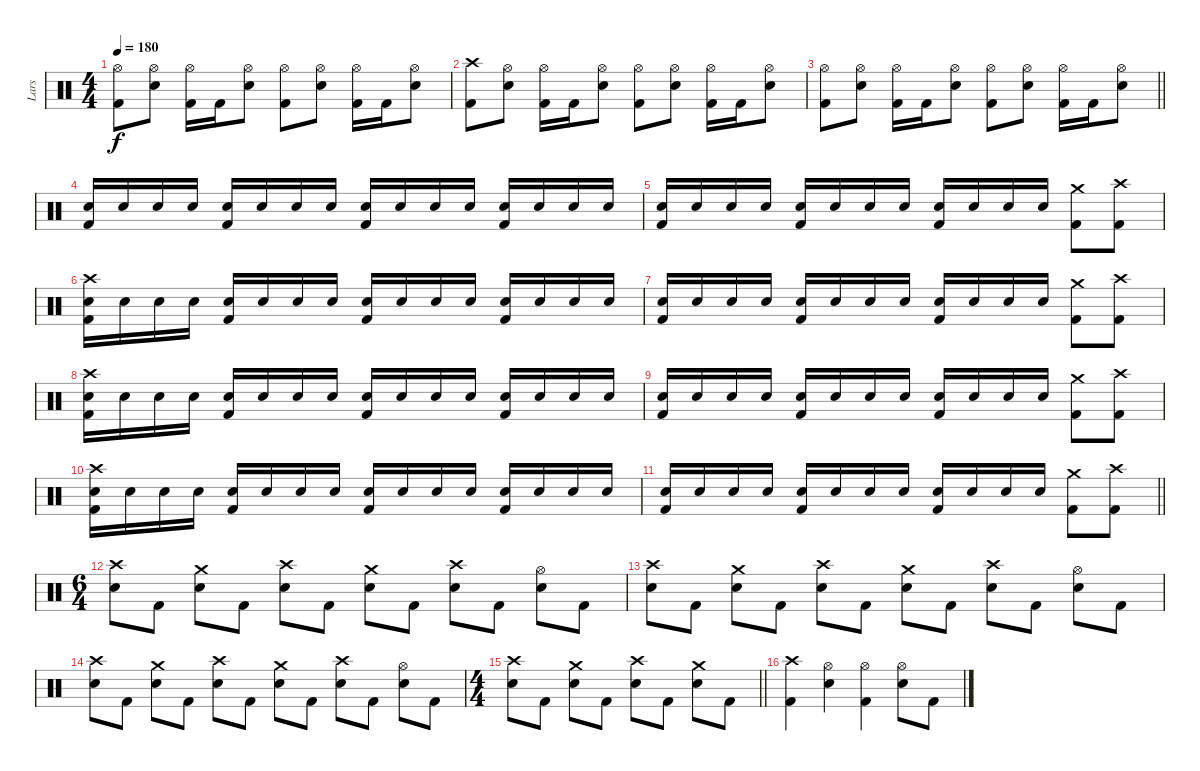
\track ("Lars" "Lars") {instrument percussion}
\staff {score}
\articulation defaults
\ts (4 4)
\tempo 180
\clef neutral
\ks c
("Hi-Hat (open)" "Kick (hit) 2").8{dy f} ("Hi-Hat (open)" "Electric Snare (hit)").8 ("Hi-Hat (open)" "Kick (hit) 2").16 "Kick (hit) 2".16 ("Hi-Hat (open)" "Electric Snare (hit)").8 ("Hi-Hat (open)" "Kick (hit) 2").8 ("Hi-Hat (open)" "Electric Snare (hit)").8 ("Hi-Hat (open)" "Kick (hit) 2").16 "Kick (hit) 2".16 ("Hi-Hat (open)" "Electric Snare (hit)").8 |
("Crash high (hit)" "Kick (hit) 2").8 ("Hi-Hat (open)" "Electric Snare (hit)").8 ("Hi-Hat (open)" "Kick (hit) 2").16 "Kick (hit) 2".16 ("Hi-Hat (open)" "Electric Snare (hit)").8 ("Hi-Hat (open)" "Kick (hit) 2").8 ("Hi-Hat (open)" "Electric Snare (hit)").8 ("Hi-Hat (open)" "Kick (hit) 2").16 "Kick (hit) 2".16 ("Hi-Hat (open)" "Electric Snare (hit)").8 |
\barLineRight lightlight
("Hi-Hat (open)" "Kick (hit) 2").8 ("Hi-Hat (open)" "Electric Snare (hit)").8 ("Hi-Hat (open)" "Kick (hit) 2").16 "Kick (hit) 2".16 ("Hi-Hat (open)" "Electric Snare (hit)").8 ("Hi-Hat (open)" "Kick (hit) 2").8 ("Hi-Hat (open)" "Electric Snare (hit)").8 ("Hi-Hat (open)" "Kick (hit) 2").16 "Kick (hit) 2".16 ("Hi-Hat (open)" "Electric Snare (hit)").8 |
\section ("" "")
("Electric Snare (hit)" "Kick (hit) 2").16 "Electric Snare (hit)".16 "Electric Snare (hit)".16 "Electric Snare (hit)".16 ("Electric Snare (hit)" "Kick (hit) 2").16 "Electric Snare (hit)".16 "Electric Snare (hit)".16 "Electric Snare (hit)".16 ("Electric Snare (hit)" "Kick (hit) 2").16 "Electric Snare (hit)".16 "Electric Snare (hit)".16 "Electric Snare (hit)".16 ("Electric Snare (hit)" "Kick (hit) 2").16 "Electric Snare (hit)".16 "Electric Snare (hit)".16 "Electric Snare (hit)".16 |
("Electric Snare (hit)" "Kick (hit) 2").16 "Electric Snare (hit)".16 "Electric Snare (hit)".16 "Electric Snare (hit)".16 ("Electric Snare (hit)" "Kick (hit) 2").16 "Electric Snare (hit)".16 "Electric Snare (hit)".16 "Electric Snare (hit)".16 ("Electric Snare (hit)" "Kick (hit) 2").16 "Electric Snare (hit)".16 "Electric Snare (hit)".16 "Electric Snare (hit)".16 ("Crash medium (hit)" "Kick (hit) 2").8 ("Crash high (hit)" "Kick (hit) 2").8 |
("Crash high (hit)" "Electric Snare (hit)" "Kick (hit) 2").16 "Electric Snare (hit)".16 "Electric Snare (hit)".16 "Electric Snare (hit)".16 ("Electric Snare (hit)" "Kick (hit) 2").16 "Electric Snare (hit)".16 "Electric Snare (hit)".16 "Electric Snare (hit)".16 ("Electric Snare (hit)" "Kick (hit) 2").16 "Electric Snare (hit)".16 "Electric Snare (hit)".16 "Electric Snare (hit)".16 ("Electric Snare (hit)" "Kick (hit) 2").16 "Electric Snare (hit)".16 "Electric Snare (hit)".16 "Electric Snare (hit)".16 |
("Electric Snare (hit)" "Kick (hit) 2").16 "Electric Snare (hit)".16 "Electric Snare (hit)".16 "Electric Snare (hit)".16 ("Electric Snare (hit)" "Kick (hit) 2").16 "Electric Snare (hit)".16 "Electric Snare (hit)".16 "Electric Snare (hit)".16 ("Electric Snare (hit)" "Kick (hit) 2").16 "Electric Snare (hit)".16 "Electric Snare (hit)".16 "Electric Snare (hit)".16 ("Crash medium (hit)" "Kick (hit) 2").8 ("Crash high (hit)" "Kick (hit) 2").8 |
("Crash high (hit)" "Electric Snare (hit)" "Kick (hit) 2").16 "Electric Snare (hit)".16 "Electric Snare (hit)".16 "Electric Snare (hit)".16 ("Electric Snare (hit)" "Kick (hit) 2").16 "Electric Snare (hit)".16 "Electric Snare (hit)".16 "Electric Snare (hit)".16 ("Electric Snare (hit)" "Kick (hit) 2").16 "Electric Snare (hit)".16 "Electric Snare (hit)".16 "Electric Snare (hit)".16 ("Electric Snare (hit)" "Kick (hit) 2").16 "Electric Snare (hit)".16 "Electric Snare (hit)".16 "Electric Snare (hit)".16 |
("Electric Snare (hit)" "Kick (hit) 2").16 "Electric Snare (hit)".16 "Electric Snare (hit)".16 "Electric Snare (hit)".16 ("Electric Snare (hit)" "Kick (hit) 2").16 "Electric Snare (hit)".16 "Electric Snare (hit)".16 "Electric Snare (hit)".16 ("Electric Snare (hit)" "Kick (hit) 2").16 "Electric Snare (hit)".16 "Electric Snare (hit)".16 "Electric Snare (hit)".16 ("Crash medium (hit)" "Kick (hit) 2").8 ("Crash high (hit)" "Kick (hit) 2").8 |
("Crash high (hit)" "Electric Snare (hit)" "Kick (hit) 2").16 "Electric Snare (hit)".16 "Electric Snare (hit)".16 "Electric Snare (hit)".16 ("Electric Snare (hit)" "Kick (hit) 2").16 "Electric Snare (hit)".16 "Electric Snare (hit)".16 "Electric Snare (hit)".16 ("Electric Snare (hit)" "Kick (hit) 2").16 "Electric Snare (hit)".16 "Electric Snare (hit)".16 "Electric Snare (hit)".16 ("Electric Snare (hit)" "Kick (hit) 2").16 "Electric Snare (hit)".16 "Electric Snare (hit)".16 "Electric Snare (hit)".16 |
\barLineRight lightlight
("Electric Snare (hit)" "Kick (hit) 2").16 "Electric Snare (hit)".16 "Electric Snare (hit)".16 "Electric Snare (hit)".16 ("Electric Snare (hit)" "Kick (hit) 2").16 "Electric Snare (hit)".16 "Electric Snare (hit)".16 "Electric Snare (hit)".16 ("Electric Snare (hit)" "Kick (hit) 2").16 "Electric Snare (hit)".16 "Electric Snare (hit)".16 "Electric Snare (hit)".16 ("Crash medium (hit)" "Kick (hit) 2").8 ("Crash high (hit)" "Kick (hit) 2").8 |
\ts (6 4)
\section ("" "")
("Crash high (hit)" "Electric Snare (hit)").8 "Kick (hit) 2".8 ("Crash medium (hit)" "Electric Snare (hit)").8 "Kick (hit) 2".8 ("Crash high (hit)" "Electric Snare (hit)").8 "Kick (hit) 2".8 ("Crash medium (hit)" "Electric Snare (hit)").8 "Kick (hit) 2".8 ("Crash high (hit)" "Electric Snare (hit)").8 "Kick (hit) 2".8 ("Hi-Hat (open)" "Electric Snare (hit)").8 "Kick (hit) 2".8 |
("Crash high (hit)" "Electric Snare (hit)").8 "Kick (hit) 2".8 ("Crash medium (hit)" "Electric Snare (hit)").8 "Kick (hit) 2".8 ("Crash high (hit)" "Electric Snare (hit)").8 "Kick (hit) 2".8 ("Crash medium (hit)" "Electric Snare (hit)").8 "Kick (hit) 2".8 ("Crash high (hit)" "Electric Snare (hit)").8 "Kick (hit) 2".8 ("Hi-Hat (open)" "Electric Snare (hit)").8 "Kick (hit) 2".8 |
("Crash high (hit)" "Electric Snare (hit)").8 "Kick (hit) 2".8 ("Crash medium (hit)" "Electric Snare (hit)").8 "Kick (hit) 2".8 ("Crash high (hit)" "Electric Snare (hit)").8 "Kick (hit) 2".8 ("Crash medium (hit)" "Electric Snare (hit)").8 "Kick (hit) 2".8 ("Crash high (hit)" "Electric Snare (hit)").8 "Kick (hit) 2".8 ("Hi-Hat (open)" "Electric Snare (hit)").8 "Kick (hit) 2".8 |
\ts (4 4)
\barLineRight lightlight
("Crash high (hit)" "Electric Snare (hit)").8 "Kick (hit) 2".8 ("Crash medium (hit)" "Electric Snare (hit)").8 "Kick (hit) 2".8 ("Crash high (hit)" "Electric Snare (hit)").8 "Kick (hit) 2".8 ("Crash medium (hit)" "Electric Snare (hit)").8 "Kick (hit) 2".8 |
\section ("" "")
("Crash high (hit)" "Kick (hit) 2").4 ("Hi-Hat (open)" "Electric Snare (hit)").4 ("Hi-Hat (open)" "Kick (hit) 2").4 ("Hi-Hat (open)" "Electric Snare (hit)").8 "Kick (hit) 2".8
